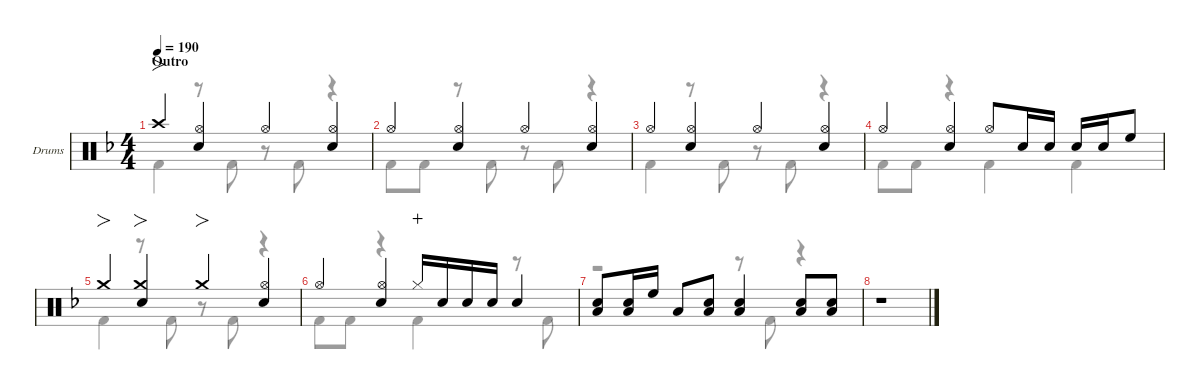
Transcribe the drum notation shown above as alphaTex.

\defaultSystemsLayout 4
\hideDynamics
\bracketExtendMode nobrackets
\firstSystemTrackNameOrientation horizontal
\track ("Drums" "Drums") {defaultSystemsLayout 4 instrument percussion}
\staff {score}
\articulation defaults
\voice
\ts (4 4)
\section ("" "Outro")
\tempo 190
\clef neutral
\ks dminor "Crash high (hit)"{acc forcenatural}.4{fo dy f}
("Hi-Hat (open)"{acc forcenatural} "Snare (hit) 2"{acc forcenatural}).4 "Hi-Hat (open)"{acc forcenatural}.4 ("Hi-Hat (open)"{acc forcenatural} "Snare (hit) 2"{acc forcenatural}).4 |
"Hi-Hat (open)"{acc forcenatural}.4 ("Hi-Hat (open)"{acc forcenatural} "Snare (hit) 2"{acc forcenatural}).4 "Hi-Hat (open)"{acc forcenatural}.4 ("Hi-Hat (open)"{acc forcenatural} "Snare (hit) 2"{acc forcenatural}).4 |
"Hi-Hat (open)"{acc forcenatural}.4 ("Hi-Hat (open)"{acc forcenatural} "Snare (hit) 2"{acc forcenatural}).4 "Hi-Hat (open)"{acc forcenatural}.4 ("Hi-Hat (open)"{acc forcenatural} "Snare (hit) 2"{acc forcenatural}).4 |
"Hi-Hat (open)"{acc forcenatural}.4 ("Hi-Hat (open)"{acc forcenatural} "Snare (hit) 2"{acc forcenatural}).4 "Hi-Hat (open)"{acc forcenatural}.8 "Snare (hit) 2"{acc forcenatural}.16 "Snare (hit) 2"{acc forcenatural}.16{dy mf beam split} "Snare (hit) 2"{acc forcenatural}.16{dy f} "Snare (hit) 2"{acc forcenatural}.16{dy mf} "High Floor Tom (hit)"{acc forcenatural}.8{dy f} |
"Crash medium (hit)"{acc forcenatural}.4{fo} ("Crash medium (hit)"{acc forcenatural} "Snare (hit) 2"{acc forcenatural}).4{fo} "Crash medium (hit)"{acc forcenatural}.4{fo} ("Hi-Hat (open)"{acc forcenatural} "Snare (hit) 2"{acc forcenatural}).4 |
"Hi-Hat (open)"{acc forcenatural}.4 ("Hi-Hat (open)"{acc forcenatural} "Snare (hit) 2"{acc forcenatural}).4 "Hi-Hat (closed)"{acc forcenatural}.16{wahc beam merge} "Snare (hit) 2"{acc forcenatural}.16{dy mf beam merge} "Snare (hit) 2"{acc forcenatural}.16{dy f beam merge} "Snare (hit) 2"{acc forcenatural}.16{beam split} "Snare (hit) 2"{acc forcenatural}.4 |
("Snare (hit) 2"{acc forcenatural} "Low Tom (hit)"{acc forcenatural}).8 ("Snare (hit) 2"{acc forcenatural} "Low Tom (hit)"{acc forcenatural}).16 "High Floor Tom (hit)"{acc forcenatural}.16{beam split} "Low Tom (hit)"{acc forcenatural}.8 ("Snare (hit) 2"{acc forcenatural} "Low Tom (hit)"{acc forcenatural}).8 ("Snare (hit) 2"{acc forcenatural} "Low Tom (hit)"{acc forcenatural}).4 ("Low Tom (hit)"{acc forcenatural} "Snare (hit) 2"{acc forcenatural}).8 ("Low Tom (hit)"{acc forcenatural} "Snare (hit) 2"{acc forcenatural}).8 |
r.1
\voice
\clef neutral
\ottava regular
\simile none
\ks dminor "Kick (hit) 2"{acc forcenatural}.4{dy f}
r.8 "Kick (hit) 2"{acc forcenatural}.8 r.8 "Kick (hit) 2"{acc forcenatural}.8 r.4 |
"Kick (hit) 2"{acc forcenatural}.8 "Kick (hit) 2"{acc forcenatural}.8 r.8 "Kick (hit) 2"{acc forcenatural}.8 r.8 "Kick (hit) 2"{acc forcenatural}.8 r.4 |
"Kick (hit) 2"{acc forcenatural}.4 r.8 "Kick (hit) 2"{acc forcenatural}.8 r.8 "Kick (hit) 2"{acc forcenatural}.8 r.4 |
"Kick (hit) 2"{acc forcenatural}.8 "Kick (hit) 2"{acc forcenatural}.8 r.4 "Kick (hit) 2"{acc forcenatural}.4 "Kick (hit) 2"{acc forcenatural}.4 |
"Kick (hit) 2"{acc forcenatural}.4 r.8 "Kick (hit) 2"{acc forcenatural}.8 r.8 "Kick (hit) 2"{acc forcenatural}.8 r.4 |
"Kick (hit) 2"{acc forcenatural}.8 "Kick (hit) 2"{acc forcenatural}.8 r.4 "Kick (hit) 2"{acc forcenatural}.4 r.8 "Kick (hit) 2"{acc forcenatural}.8 |
r.2 r.8 "Kick (hit) 2"{acc forcenatural}.8 r.4 |
r.1
